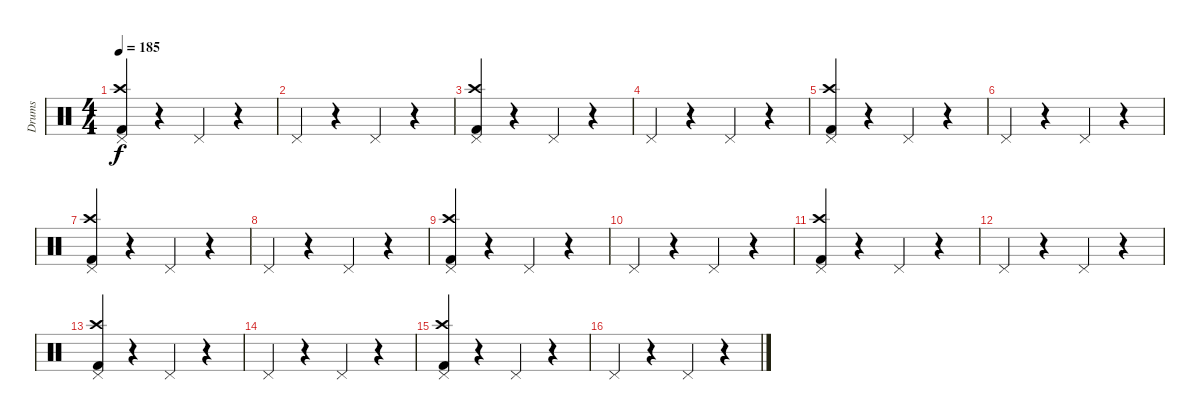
\track ("Drums" "Drums") {instrument percussion}
\staff {score}
\articulation defaults
\ts (4 4)
\tempo 185
\clef neutral
\ks c
("Pedal Hi-Hat (hit)" "Crash high (hit)" "Kick (hit) 2").4{dy f} r.4 "Pedal Hi-Hat (hit)".4 r.4 |
"Pedal Hi-Hat (hit)".4 r.4 "Pedal Hi-Hat (hit)".4 r.4 |
("Pedal Hi-Hat (hit)" "Crash high (hit)" "Kick (hit) 2").4 r.4 "Pedal Hi-Hat (hit)".4 r.4 |
"Pedal Hi-Hat (hit)".4 r.4 "Pedal Hi-Hat (hit)".4 r.4 |
("Pedal Hi-Hat (hit)" "Crash high (hit)" "Kick (hit) 2").4 r.4 "Pedal Hi-Hat (hit)".4 r.4 |
"Pedal Hi-Hat (hit)".4 r.4 "Pedal Hi-Hat (hit)".4 r.4 |
("Pedal Hi-Hat (hit)" "Crash high (hit)" "Kick (hit) 2").4 r.4 "Pedal Hi-Hat (hit)".4 r.4 |
"Pedal Hi-Hat (hit)".4 r.4 "Pedal Hi-Hat (hit)".4 r.4 |
("Pedal Hi-Hat (hit)" "Crash high (hit)" "Kick (hit) 2").4 r.4 "Pedal Hi-Hat (hit)".4 r.4 |
"Pedal Hi-Hat (hit)".4 r.4 "Pedal Hi-Hat (hit)".4 r.4 |
("Pedal Hi-Hat (hit)" "Crash high (hit)" "Kick (hit) 2").4 r.4 "Pedal Hi-Hat (hit)".4 r.4 |
"Pedal Hi-Hat (hit)".4 r.4 "Pedal Hi-Hat (hit)".4 r.4 |
("Pedal Hi-Hat (hit)" "Crash high (hit)" "Kick (hit) 2").4 r.4 "Pedal Hi-Hat (hit)".4 r.4 |
"Pedal Hi-Hat (hit)".4 r.4 "Pedal Hi-Hat (hit)".4 r.4 |
("Pedal Hi-Hat (hit)" "Crash high (hit)" "Kick (hit) 2").4 r.4 "Pedal Hi-Hat (hit)".4 r.4 |
"Pedal Hi-Hat (hit)".4 r.4 "Pedal Hi-Hat (hit)".4 r.4
